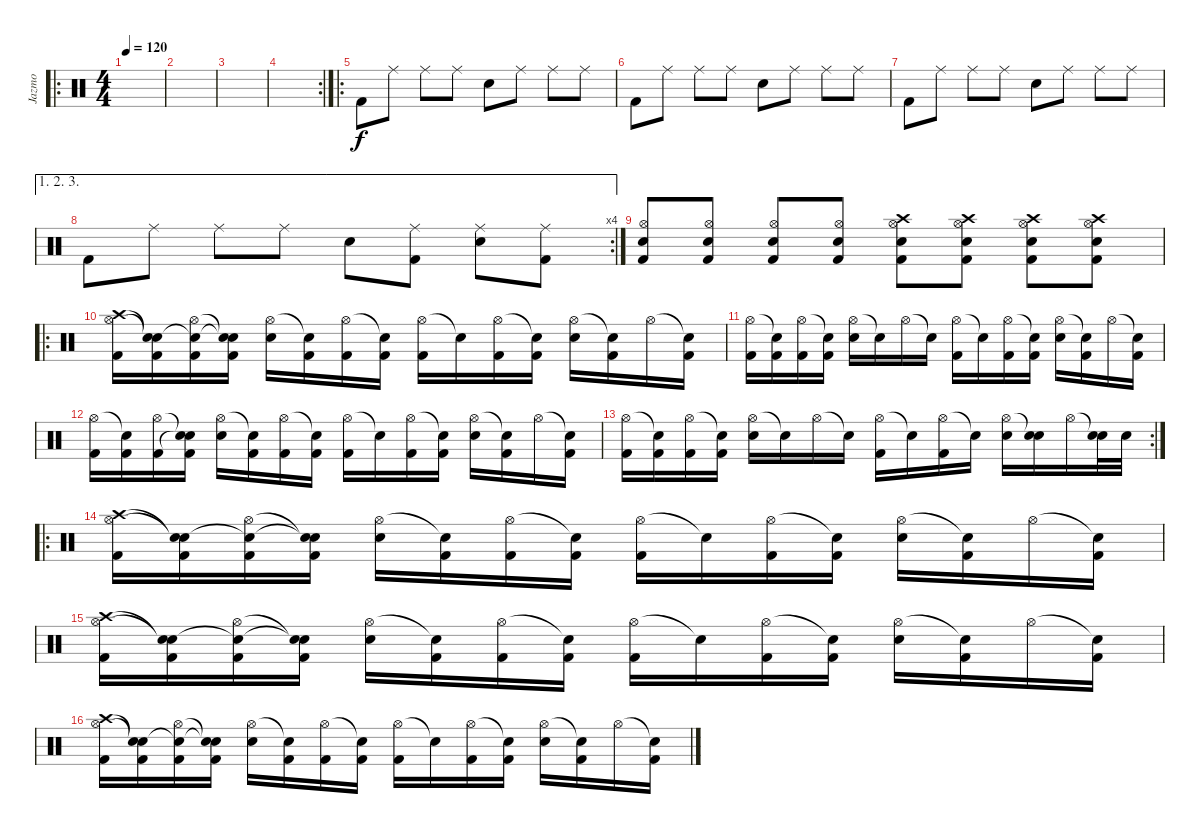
\track ("Jazmo" "Jazmo") {instrument percussion}
\staff {score}
\articulation defaults
\ro
\ts (4 4)
\tempo 120
\clef neutral
\ks c
|
|
|
\rc 2
|
\ro "Kick (hit) 2".8 "Ride (middle)".8 "Ride (middle)".8 "Ride (middle)".8 "Snare (hit) 2".8 "Ride (middle)".8 "Ride (middle)".8 "Ride (middle)".8
|
"Kick (hit) 2".8 "Ride (middle)".8 "Ride (middle)".8 "Ride (middle)".8 "Snare (hit) 2".8 "Ride (middle)".8 "Ride (middle)".8 "Ride (middle)".8 |
"Kick (hit) 2".8 "Ride (middle)".8 "Ride (middle)".8 "Ride (middle)".8 "Snare (hit) 2".8 "Ride (middle)".8 "Ride (middle)".8 "Ride (middle)".8 |
\ae (1 2 3)
\rc 4 "Kick (hit) 2".8 "Ride (middle)".8 "Ride (middle)".8 "Ride (middle)".8 "Snare (hit) 2".8
("Ride (middle)" "Kick (hit) 2").8 ("Ride (middle)" "Snare (hit) 2").8 ("Ride (middle)" "Kick (hit) 2").8 |
("Hi-Hat (open)" "Kick (hit) 2" "Electric Snare (hit)").8 ("Hi-Hat (open)" "Kick (hit) 2" "Electric Snare (hit)").8 ("Hi-Hat (open)" "Kick (hit) 2" "Electric Snare (hit)").8 ("Hi-Hat (open)" "Kick (hit) 2" "Electric Snare (hit)").8 ("Crash high (hit)" "Hi-Hat (open)" "Kick (hit) 2" "Electric Snare (hit)").8 ("Crash high (hit)" "Hi-Hat (open)" "Kick (hit) 2" "Electric Snare (hit)").8 ("Crash high (hit)" "Hi-Hat (open)" "Kick (hit) 2" "Electric Snare (hit)").8 ("Crash high (hit)" "Hi-Hat (open)" "Kick (hit) 2" "Electric Snare (hit)").8 |
\ro
("Crash high (hit)" "Hi-Hat (open)" "Kick (hit) 2").16 ("Snare (hit)"{t} "Snare (hit)"{t} "Kick (hit) 2").16 ("Snare (hit)"{t} "Hi-Hat (open)" "Kick (hit) 2").16 ("Snare (hit)"{t} "Snare (hit)"{t} "Kick (hit) 2").16 ("Hi-Hat (open)" "Electric Snare (hit)").16 ("Snare (hit)"{t} "Kick (hit) 2").16 ("Hi-Hat (open)" "Kick (hit) 2").16 ("Snare (hit)"{t} "Kick (hit) 2").16 ("Hi-Hat (open)" "Kick (hit) 2").16 "Snare (hit)"{t}.16 ("Hi-Hat (open)" "Kick (hit) 2").16 ("Snare (hit)"{t} "Kick (hit) 2").16 ("Hi-Hat (open)" "Electric Snare (hit)").16 ("Snare (hit)"{t} "Kick (hit) 2").16 "Hi-Hat (open)".16 ("Snare (hit)"{t} "Kick (hit) 2").16 |
("Hi-Hat (open)" "Kick (hit) 2").16 ("Snare (hit)"{t} "Kick (hit) 2").16 ("Hi-Hat (open)" "Kick (hit) 2").16 ("Snare (hit)"{t} "Kick (hit) 2").16 ("Hi-Hat (open)" "Electric Snare (hit)").16 "Snare (hit)"{t}.16 "Hi-Hat (open)".16 "Snare (hit)"{t}.16 ("Hi-Hat (open)" "Kick (hit) 2").16 "Snare (hit)"{t}.16 ("Hi-Hat (open)" "Kick (hit) 2").16 ("Snare (hit)"{t} "Kick (hit) 2").16 ("Hi-Hat (open)" "Electric Snare (hit)").16 ("Snare (hit)"{t} "Kick (hit) 2").16 "Hi-Hat (open)".16 ("Snare (hit)"{t} "Kick (hit) 2").16 |
("Hi-Hat (open)" "Kick (hit) 2").16 ("Snare (hit)"{t} "Kick (hit) 2").16 ("Hi-Hat (open)" "Kick (hit) 2").16 ("Snare (hit)"{t} "Snare (hit)"{t} "Kick (hit) 2").16 ("Hi-Hat (open)" "Electric Snare (hit)").16 ("Snare (hit)"{t} "Kick (hit) 2").16 ("Hi-Hat (open)" "Kick (hit) 2").16 ("Snare (hit)"{t} "Kick (hit) 2").16 ("Hi-Hat (open)" "Kick (hit) 2").16 "Snare (hit)"{t}.16 ("Hi-Hat (open)" "Kick (hit) 2").16 ("Snare (hit)"{t} "Kick (hit) 2").16 ("Hi-Hat (open)" "Electric Snare (hit)").16 ("Snare (hit)"{t} "Kick (hit) 2").16 "Hi-Hat (open)".16 ("Snare (hit)"{t} "Kick (hit) 2").16 |
\rc 2
("Hi-Hat (open)" "Kick (hit) 2").16 ("Snare (hit)"{t} "Kick (hit) 2").16 ("Hi-Hat (open)" "Kick (hit) 2").16 ("Snare (hit)"{t} "Kick (hit) 2").16 ("Hi-Hat (open)" "Electric Snare (hit)").16 "Snare (hit)"{t}.16 "Hi-Hat (open)".16 "Snare (hit)"{t}.16 ("Hi-Hat (open)" "Kick (hit) 2").16 "Snare (hit)"{t}.16 ("Hi-Hat (open)" "Kick (hit) 2").16 "Snare (hit)"{t}.16 ("Hi-Hat (open)" "Electric Snare (hit)").16 ("Snare (hit)"{t} "Electric Snare (hit)").16 "Hi-Hat (open)".16 ("Snare (hit)"{t} "Electric Snare (hit)").32 "Electric Snare (hit)".32 |
\ro
("Crash high (hit)" "Hi-Hat (open)" "Kick (hit) 2").16 ("Snare (hit)"{t} "Snare (hit)"{t} "Kick (hit) 2").16 ("Snare (hit)"{t} "Hi-Hat (open)" "Kick (hit) 2").16 ("Snare (hit)"{t} "Snare (hit)"{t} "Kick (hit) 2").16 ("Hi-Hat (open)" "Electric Snare (hit)").16 ("Snare (hit)"{t} "Kick (hit) 2").16 ("Hi-Hat (open)" "Kick (hit) 2").16 ("Snare (hit)"{t} "Kick (hit) 2").16 ("Hi-Hat (open)" "Kick (hit) 2").16 "Snare (hit)"{t}.16 ("Hi-Hat (open)" "Kick (hit) 2").16 ("Snare (hit)"{t} "Kick (hit) 2").16 ("Hi-Hat (open)" "Electric Snare (hit)").16 ("Snare (hit)"{t} "Kick (hit) 2").16 "Hi-Hat (open)".16 ("Snare (hit)"{t} "Kick (hit) 2").16 |
("Crash high (hit)" "Hi-Hat (open)" "Kick (hit) 2").16 ("Snare (hit)"{t} "Snare (hit)"{t} "Kick (hit) 2").16 ("Snare (hit)"{t} "Hi-Hat (open)" "Kick (hit) 2").16 ("Snare (hit)"{t} "Snare (hit)"{t} "Kick (hit) 2").16 ("Hi-Hat (open)" "Electric Snare (hit)").16 ("Snare (hit)"{t} "Kick (hit) 2").16 ("Hi-Hat (open)" "Kick (hit) 2").16 ("Snare (hit)"{t} "Kick (hit) 2").16 ("Hi-Hat (open)" "Kick (hit) 2").16 "Snare (hit)"{t}.16 ("Hi-Hat (open)" "Kick (hit) 2").16 ("Snare (hit)"{t} "Kick (hit) 2").16 ("Hi-Hat (open)" "Electric Snare (hit)").16 ("Snare (hit)"{t} "Kick (hit) 2").16 "Hi-Hat (open)".16 ("Snare (hit)"{t} "Kick (hit) 2").16 |
("Crash high (hit)" "Hi-Hat (open)" "Kick (hit) 2").16 ("Snare (hit)"{t} "Snare (hit)"{t} "Kick (hit) 2").16 ("Snare (hit)"{t} "Hi-Hat (open)" "Kick (hit) 2").16 ("Snare (hit)"{t} "Snare (hit)"{t} "Kick (hit) 2").16 ("Hi-Hat (open)" "Electric Snare (hit)").16 ("Snare (hit)"{t} "Kick (hit) 2").16 ("Hi-Hat (open)" "Kick (hit) 2").16 ("Snare (hit)"{t} "Kick (hit) 2").16 ("Hi-Hat (open)" "Kick (hit) 2").16 "Snare (hit)"{t}.16 ("Hi-Hat (open)" "Kick (hit) 2").16 ("Snare (hit)"{t} "Kick (hit) 2").16 ("Hi-Hat (open)" "Electric Snare (hit)").16 ("Snare (hit)"{t} "Kick (hit) 2").16 "Hi-Hat (open)".16 ("Snare (hit)"{t} "Kick (hit) 2").16
